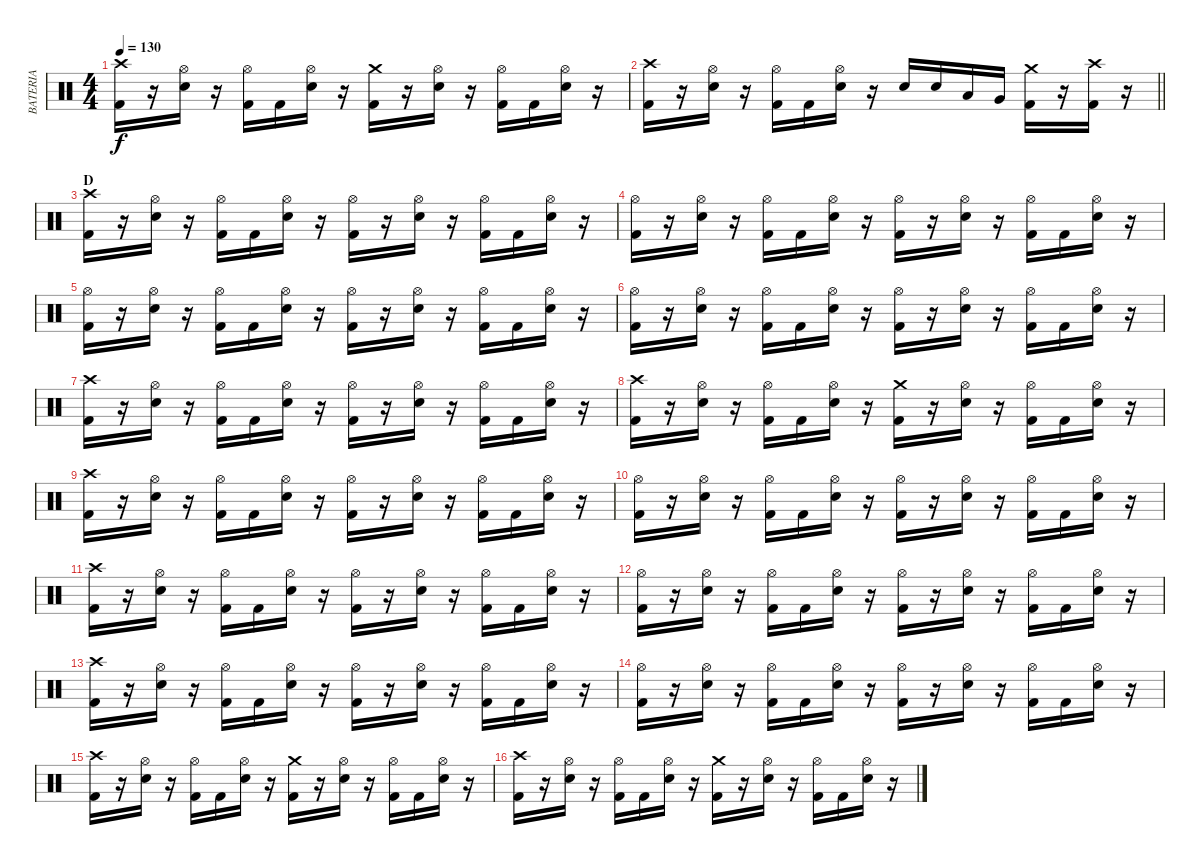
\track ("BATERIA" "BATERIA") {instrument percussion}
\staff {score}
\articulation defaults
\ts (4 4)
\tempo 130
\clef neutral
\ks c
("Kick (hit) 2" "Crash high (hit)").16{dy f} r.16 ("Electric Snare (hit)" "Hi-Hat (open)").16 r.16 ("Kick (hit) 2" "Hi-Hat (open)").16 "Kick (hit) 2".16 ("Electric Snare (hit)" "Hi-Hat (open)").16 r.16 ("Kick (hit) 2" "Crash medium (hit)").16 r.16 ("Electric Snare (hit)" "Hi-Hat (open)").16 r.16 ("Kick (hit) 2" "Hi-Hat (open)").16 "Kick (hit) 2".16 ("Electric Snare (hit)" "Hi-Hat (open)").16 r.16 |
\barLineRight lightlight
("Kick (hit) 2" "Crash high (hit)").16 r.16 ("Electric Snare (hit)" "Hi-Hat (open)").16 r.16 ("Kick (hit) 2" "Hi-Hat (open)").16 "Kick (hit) 2".16 ("Electric Snare (hit)" "Hi-Hat (open)").16 r.16 "Electric Snare (hit)".16 "Electric Snare (hit)".16 "Low Tom (hit)".16 "Very Low Tom (hit)".16 ("Kick (hit) 2" "Crash medium (hit)").16 r.16 ("Kick (hit) 2" "Crash high (hit)").16 r.16 |
\section ("" "D")
("Kick (hit) 2" "Crash high (hit)").16 r.16 ("Electric Snare (hit)" "Hi-Hat (open)").16 r.16 ("Kick (hit) 2" "Hi-Hat (open)").16 "Kick (hit) 2".16 ("Electric Snare (hit)" "Hi-Hat (open)").16 r.16 ("Kick (hit) 2" "Hi-Hat (open)").16 r.16 ("Electric Snare (hit)" "Hi-Hat (open)").16 r.16 ("Kick (hit) 2" "Hi-Hat (open)").16 "Kick (hit) 2".16 ("Electric Snare (hit)" "Hi-Hat (open)").16 r.16 |
("Kick (hit) 2" "Hi-Hat (open)").16 r.16 ("Electric Snare (hit)" "Hi-Hat (open)").16 r.16 ("Kick (hit) 2" "Hi-Hat (open)").16 "Kick (hit) 2".16 ("Electric Snare (hit)" "Hi-Hat (open)").16 r.16 ("Kick (hit) 2" "Hi-Hat (open)").16 r.16 ("Electric Snare (hit)" "Hi-Hat (open)").16 r.16 ("Kick (hit) 2" "Hi-Hat (open)").16 "Kick (hit) 2".16 ("Electric Snare (hit)" "Hi-Hat (open)").16 r.16 |
("Kick (hit) 2" "Hi-Hat (open)").16 r.16 ("Electric Snare (hit)" "Hi-Hat (open)").16 r.16 ("Kick (hit) 2" "Hi-Hat (open)").16 "Kick (hit) 2".16 ("Electric Snare (hit)" "Hi-Hat (open)").16 r.16 ("Kick (hit) 2" "Hi-Hat (open)").16 r.16 ("Electric Snare (hit)" "Hi-Hat (open)").16 r.16 ("Kick (hit) 2" "Hi-Hat (open)").16 "Kick (hit) 2".16 ("Electric Snare (hit)" "Hi-Hat (open)").16 r.16 |
("Kick (hit) 2" "Hi-Hat (open)").16 r.16 ("Electric Snare (hit)" "Hi-Hat (open)").16 r.16 ("Kick (hit) 2" "Hi-Hat (open)").16 "Kick (hit) 2".16 ("Electric Snare (hit)" "Hi-Hat (open)").16 r.16 ("Kick (hit) 2" "Hi-Hat (open)").16 r.16 ("Electric Snare (hit)" "Hi-Hat (open)").16 r.16 ("Kick (hit) 2" "Hi-Hat (open)").16 "Kick (hit) 2".16 ("Electric Snare (hit)" "Hi-Hat (open)").16 r.16 |
("Kick (hit) 2" "Crash high (hit)").16 r.16 ("Electric Snare (hit)" "Hi-Hat (open)").16 r.16 ("Kick (hit) 2" "Hi-Hat (open)").16 "Kick (hit) 2".16 ("Electric Snare (hit)" "Hi-Hat (open)").16 r.16 ("Kick (hit) 2" "Hi-Hat (open)").16 r.16 ("Electric Snare (hit)" "Hi-Hat (open)").16 r.16 ("Kick (hit) 2" "Hi-Hat (open)").16 "Kick (hit) 2".16 ("Electric Snare (hit)" "Hi-Hat (open)").16 r.16 |
("Kick (hit) 2" "Crash high (hit)").16 r.16 ("Electric Snare (hit)" "Hi-Hat (open)").16 r.16 ("Kick (hit) 2" "Hi-Hat (open)").16 "Kick (hit) 2".16 ("Electric Snare (hit)" "Hi-Hat (open)").16 r.16 ("Kick (hit) 2" "Crash medium (hit)").16 r.16 ("Electric Snare (hit)" "Hi-Hat (open)").16 r.16 ("Kick (hit) 2" "Hi-Hat (open)").16 "Kick (hit) 2".16 ("Electric Snare (hit)" "Hi-Hat (open)").16 r.16 |
("Kick (hit) 2" "Crash high (hit)").16 r.16 ("Electric Snare (hit)" "Hi-Hat (open)").16 r.16 ("Kick (hit) 2" "Hi-Hat (open)").16 "Kick (hit) 2".16 ("Electric Snare (hit)" "Hi-Hat (open)").16 r.16 ("Kick (hit) 2" "Hi-Hat (open)").16 r.16 ("Electric Snare (hit)" "Hi-Hat (open)").16 r.16 ("Kick (hit) 2" "Hi-Hat (open)").16 "Kick (hit) 2".16 ("Electric Snare (hit)" "Hi-Hat (open)").16 r.16 |
("Kick (hit) 2" "Hi-Hat (open)").16 r.16 ("Electric Snare (hit)" "Hi-Hat (open)").16 r.16 ("Kick (hit) 2" "Hi-Hat (open)").16 "Kick (hit) 2".16 ("Electric Snare (hit)" "Hi-Hat (open)").16 r.16 ("Kick (hit) 2" "Hi-Hat (open)").16 r.16 ("Electric Snare (hit)" "Hi-Hat (open)").16 r.16 ("Kick (hit) 2" "Hi-Hat (open)").16 "Kick (hit) 2".16 ("Electric Snare (hit)" "Hi-Hat (open)").16 r.16 |
("Kick (hit) 2" "Crash high (hit)").16 r.16 ("Electric Snare (hit)" "Hi-Hat (open)").16 r.16 ("Kick (hit) 2" "Hi-Hat (open)").16 "Kick (hit) 2".16 ("Electric Snare (hit)" "Hi-Hat (open)").16 r.16 ("Kick (hit) 2" "Hi-Hat (open)").16 r.16 ("Electric Snare (hit)" "Hi-Hat (open)").16 r.16 ("Kick (hit) 2" "Hi-Hat (open)").16 "Kick (hit) 2".16 ("Electric Snare (hit)" "Hi-Hat (open)").16 r.16 |
("Kick (hit) 2" "Hi-Hat (open)").16 r.16 ("Electric Snare (hit)" "Hi-Hat (open)").16 r.16 ("Kick (hit) 2" "Hi-Hat (open)").16 "Kick (hit) 2".16 ("Electric Snare (hit)" "Hi-Hat (open)").16 r.16 ("Kick (hit) 2" "Hi-Hat (open)").16 r.16 ("Electric Snare (hit)" "Hi-Hat (open)").16 r.16 ("Kick (hit) 2" "Hi-Hat (open)").16 "Kick (hit) 2".16 ("Electric Snare (hit)" "Hi-Hat (open)").16 r.16 |
("Kick (hit) 2" "Crash high (hit)").16 r.16 ("Electric Snare (hit)" "Hi-Hat (open)").16 r.16 ("Kick (hit) 2" "Hi-Hat (open)").16 "Kick (hit) 2".16 ("Electric Snare (hit)" "Hi-Hat (open)").16 r.16 ("Kick (hit) 2" "Hi-Hat (open)").16 r.16 ("Electric Snare (hit)" "Hi-Hat (open)").16 r.16 ("Kick (hit) 2" "Hi-Hat (open)").16 "Kick (hit) 2".16 ("Electric Snare (hit)" "Hi-Hat (open)").16 r.16 |
("Kick (hit) 2" "Hi-Hat (open)").16 r.16 ("Electric Snare (hit)" "Hi-Hat (open)").16 r.16 ("Kick (hit) 2" "Hi-Hat (open)").16 "Kick (hit) 2".16 ("Electric Snare (hit)" "Hi-Hat (open)").16 r.16 ("Kick (hit) 2" "Hi-Hat (open)").16 r.16 ("Electric Snare (hit)" "Hi-Hat (open)").16 r.16 ("Kick (hit) 2" "Hi-Hat (open)").16 "Kick (hit) 2".16 ("Electric Snare (hit)" "Hi-Hat (open)").16 r.16 |
("Kick (hit) 2" "Crash high (hit)").16 r.16 ("Electric Snare (hit)" "Hi-Hat (open)").16 r.16 ("Kick (hit) 2" "Hi-Hat (open)").16 "Kick (hit) 2".16 ("Electric Snare (hit)" "Hi-Hat (open)").16 r.16 ("Kick (hit) 2" "Crash medium (hit)").16 r.16 ("Electric Snare (hit)" "Hi-Hat (open)").16 r.16 ("Kick (hit) 2" "Hi-Hat (open)").16 "Kick (hit) 2".16 ("Electric Snare (hit)" "Hi-Hat (open)").16 r.16 |
("Kick (hit) 2" "Crash high (hit)").16 r.16 ("Electric Snare (hit)" "Hi-Hat (open)").16 r.16 ("Kick (hit) 2" "Hi-Hat (open)").16 "Kick (hit) 2".16 ("Electric Snare (hit)" "Hi-Hat (open)").16 r.16 ("Kick (hit) 2" "Crash medium (hit)").16 r.16 ("Electric Snare (hit)" "Hi-Hat (open)").16 r.16 ("Kick (hit) 2" "Hi-Hat (open)").16 "Kick (hit) 2".16 ("Electric Snare (hit)" "Hi-Hat (open)").16 r.16
